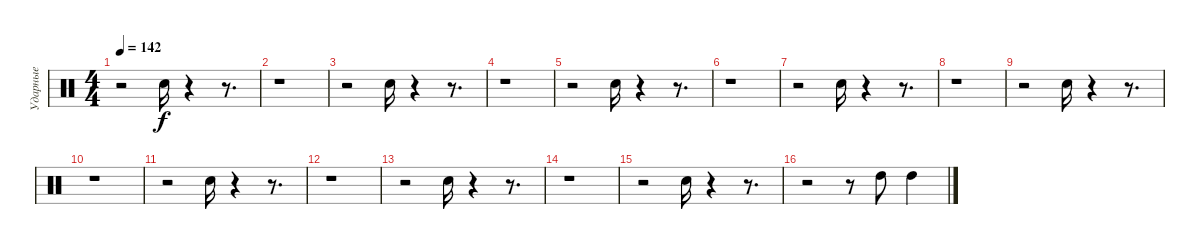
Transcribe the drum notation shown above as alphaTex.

\track ("Ударные" "Ударные") {instrument percussion}
\staff {score}
\articulation defaults
\ts (4 4)
\tempo 142
\clef neutral
\ks c
r.2{dy f} "Snare (hit) 2".16 r.4 r.8{d} |
r.1 |
r.2 "Snare (hit) 2".16 r.4 r.8{d} |
r.1 |
r.2 "Snare (hit) 2".16 r.4 r.8{d} |
r.1 |
r.2 "Snare (hit) 2".16 r.4 r.8{d} |
r.1 |
r.2 "Snare (hit) 2".16 r.4 r.8{d} |
r.1 |
r.2 "Snare (hit) 2".16 r.4 r.8{d} |
r.1 |
r.2 "Snare (hit) 2".16 r.4 r.8{d} |
r.1 |
r.2 "Snare (hit) 2".16 r.4 r.8{d} |
r.2 r.8 "High Tom (hit)".8 "High Tom (hit)".4
